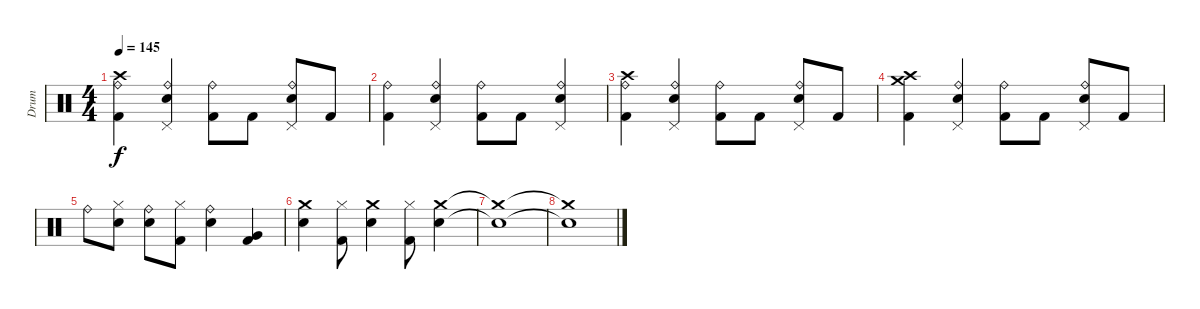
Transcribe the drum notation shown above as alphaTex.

\track ("Drum" "Drum") {instrument percussion}
\staff {score}
\articulation defaults
\ts (4 4)
\tempo 145
\clef neutral
\ks c
("Ride (bell)" "Crash high (hit)" "Kick (hit) 2").4{dy f} ("Ride (bell)" "Snare (hit) 2" "Pedal Hi-Hat (hit)").4 ("Ride (bell)" "Kick (hit) 2").8 "Kick (hit) 2".8 ("Ride (bell)" "Snare (hit) 2" "Pedal Hi-Hat (hit)").8 "Kick (hit) 2".8 |
("Ride (bell)" "Kick (hit) 2").4 ("Ride (bell)" "Snare (hit) 2" "Pedal Hi-Hat (hit)").4 ("Ride (bell)" "Kick (hit) 2").8 "Kick (hit) 2".8 ("Ride (bell)" "Snare (hit) 2" "Pedal Hi-Hat (hit)").4 |
("Ride (bell)" "Crash high (hit)" "Kick (hit) 2").4 ("Ride (bell)" "Snare (hit) 2" "Pedal Hi-Hat (hit)").4 ("Ride (bell)" "Kick (hit) 2").8 "Kick (hit) 2".8 ("Ride (bell)" "Snare (hit) 2" "Pedal Hi-Hat (hit)").8 "Kick (hit) 2".8 |
("Crash medium (hit)" "Crash high (hit)" "Kick (hit) 2").4 ("Ride (bell)" "Snare (hit) 2" "Pedal Hi-Hat (hit)").4 ("Ride (bell)" "Kick (hit) 2").8 "Kick (hit) 2".8 ("Ride (bell)" "Snare (hit) 2" "Pedal Hi-Hat (hit)").8 "Kick (hit) 2".8 |
"Ride (bell)".8 ("Hi-Hat (closed)" "Snare (hit) 2").8 ("Ride (bell)" "Snare (hit) 2").8 ("Hi-Hat (closed)" "Kick (hit) 2").8 ("Ride (bell)" "Snare (hit) 2").4 ("Very Low Tom (hit)" "Kick (hit) 2").4 |
("Crash medium (hit)" "Snare (hit) 2").4 ("Hi-Hat (closed)" "Kick (hit) 2").8 ("Crash medium (hit)" "Snare (hit) 2").4 ("Hi-Hat (closed)" "Kick (hit) 2").8 ("Crash medium (hit)" "Snare (hit) 2").4 |
("Crash medium (hit)"{t} "Snare (hit) 2"{t}).1 |
("Crash medium (hit)"{t} "Snare (hit) 2"{t}).1
